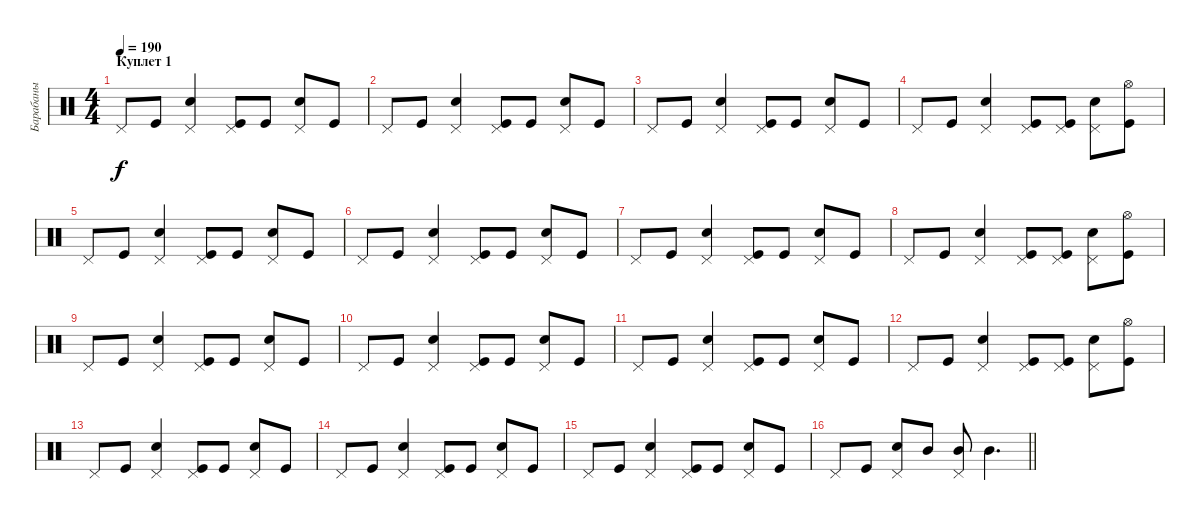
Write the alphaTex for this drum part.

\track ("Барабаны" "Барабаны") {instrument percussion}
\staff {score}
\articulation defaults
\ts (4 4)
\section ("" "Куплет 1")
\tempo 190
\clef neutral
\ks c "Pedal Hi-Hat (hit)".8{dy f} "Kick (hit)".8
("Snare (hit) 2" "Pedal Hi-Hat (hit)").4 ("Kick (hit)" "Pedal Hi-Hat (hit)").8 "Kick (hit)".8 ("Snare (hit) 2" "Pedal Hi-Hat (hit)").8 "Kick (hit)".8 |
"Pedal Hi-Hat (hit)".8 "Kick (hit)".8 ("Snare (hit) 2" "Pedal Hi-Hat (hit)").4 ("Kick (hit)" "Pedal Hi-Hat (hit)").8 "Kick (hit)".8 ("Snare (hit) 2" "Pedal Hi-Hat (hit)").8 "Kick (hit)".8 |
"Pedal Hi-Hat (hit)".8 "Kick (hit)".8 ("Snare (hit) 2" "Pedal Hi-Hat (hit)").4 ("Kick (hit)" "Pedal Hi-Hat (hit)").8 "Kick (hit)".8 ("Snare (hit) 2" "Pedal Hi-Hat (hit)").8 "Kick (hit)".8 |
"Pedal Hi-Hat (hit)".8 "Kick (hit)".8 ("Snare (hit) 2" "Pedal Hi-Hat (hit)").4 ("Kick (hit)" "Pedal Hi-Hat (hit)").8 ("Kick (hit)" "Pedal Hi-Hat (hit)").8 ("Snare (hit) 2" "Pedal Hi-Hat (hit)").8 ("Kick (hit)" "Hi-Hat (open)").8 |
"Pedal Hi-Hat (hit)".8 "Kick (hit)".8 ("Snare (hit) 2" "Pedal Hi-Hat (hit)").4 ("Kick (hit)" "Pedal Hi-Hat (hit)").8 "Kick (hit)".8 ("Snare (hit) 2" "Pedal Hi-Hat (hit)").8 "Kick (hit)".8 |
"Pedal Hi-Hat (hit)".8 "Kick (hit)".8 ("Snare (hit) 2" "Pedal Hi-Hat (hit)").4 ("Kick (hit)" "Pedal Hi-Hat (hit)").8 "Kick (hit)".8 ("Snare (hit) 2" "Pedal Hi-Hat (hit)").8 "Kick (hit)".8 |
"Pedal Hi-Hat (hit)".8 "Kick (hit)".8 ("Snare (hit) 2" "Pedal Hi-Hat (hit)").4 ("Kick (hit)" "Pedal Hi-Hat (hit)").8 "Kick (hit)".8 ("Snare (hit) 2" "Pedal Hi-Hat (hit)").8 "Kick (hit)".8 |
"Pedal Hi-Hat (hit)".8 "Kick (hit)".8 ("Snare (hit) 2" "Pedal Hi-Hat (hit)").4 ("Kick (hit)" "Pedal Hi-Hat (hit)").8 ("Kick (hit)" "Pedal Hi-Hat (hit)").8 ("Snare (hit) 2" "Pedal Hi-Hat (hit)").8 ("Kick (hit)" "Hi-Hat (open)").8 |
"Pedal Hi-Hat (hit)".8 "Kick (hit)".8 ("Snare (hit) 2" "Pedal Hi-Hat (hit)").4 ("Kick (hit)" "Pedal Hi-Hat (hit)").8 "Kick (hit)".8 ("Snare (hit) 2" "Pedal Hi-Hat (hit)").8 "Kick (hit)".8 |
"Pedal Hi-Hat (hit)".8 "Kick (hit)".8 ("Snare (hit) 2" "Pedal Hi-Hat (hit)").4 ("Kick (hit)" "Pedal Hi-Hat (hit)").8 "Kick (hit)".8 ("Snare (hit) 2" "Pedal Hi-Hat (hit)").8 "Kick (hit)".8 |
"Pedal Hi-Hat (hit)".8 "Kick (hit)".8 ("Snare (hit) 2" "Pedal Hi-Hat (hit)").4 ("Kick (hit)" "Pedal Hi-Hat (hit)").8 "Kick (hit)".8 ("Snare (hit) 2" "Pedal Hi-Hat (hit)").8 "Kick (hit)".8 |
"Pedal Hi-Hat (hit)".8 "Kick (hit)".8 ("Snare (hit) 2" "Pedal Hi-Hat (hit)").4 ("Kick (hit)" "Pedal Hi-Hat (hit)").8 ("Kick (hit)" "Pedal Hi-Hat (hit)").8 ("Snare (hit) 2" "Pedal Hi-Hat (hit)").8 ("Kick (hit)" "Hi-Hat (open)").8 |
"Pedal Hi-Hat (hit)".8 "Kick (hit)".8 ("Snare (hit) 2" "Pedal Hi-Hat (hit)").4 ("Kick (hit)" "Pedal Hi-Hat (hit)").8 "Kick (hit)".8 ("Snare (hit) 2" "Pedal Hi-Hat (hit)").8 "Kick (hit)".8 |
"Pedal Hi-Hat (hit)".8 "Kick (hit)".8 ("Snare (hit) 2" "Pedal Hi-Hat (hit)").4 ("Kick (hit)" "Pedal Hi-Hat (hit)").8 "Kick (hit)".8 ("Snare (hit) 2" "Pedal Hi-Hat (hit)").8 "Kick (hit)".8 |
"Pedal Hi-Hat (hit)".8 "Kick (hit)".8 ("Snare (hit) 2" "Pedal Hi-Hat (hit)").4 ("Kick (hit)" "Pedal Hi-Hat (hit)").8 "Kick (hit)".8 ("Snare (hit) 2" "Pedal Hi-Hat (hit)").8 "Kick (hit)".8 |
\barLineRight lightlight "Pedal Hi-Hat (hit)".8 "Kick (hit)".8
("Snare (hit) 2" "Pedal Hi-Hat (hit)").8 "Mid Tom (hit)".8 ("Mid Tom (hit)" "Pedal Hi-Hat (hit)").8 "Mid Tom (hit)".4{d}
